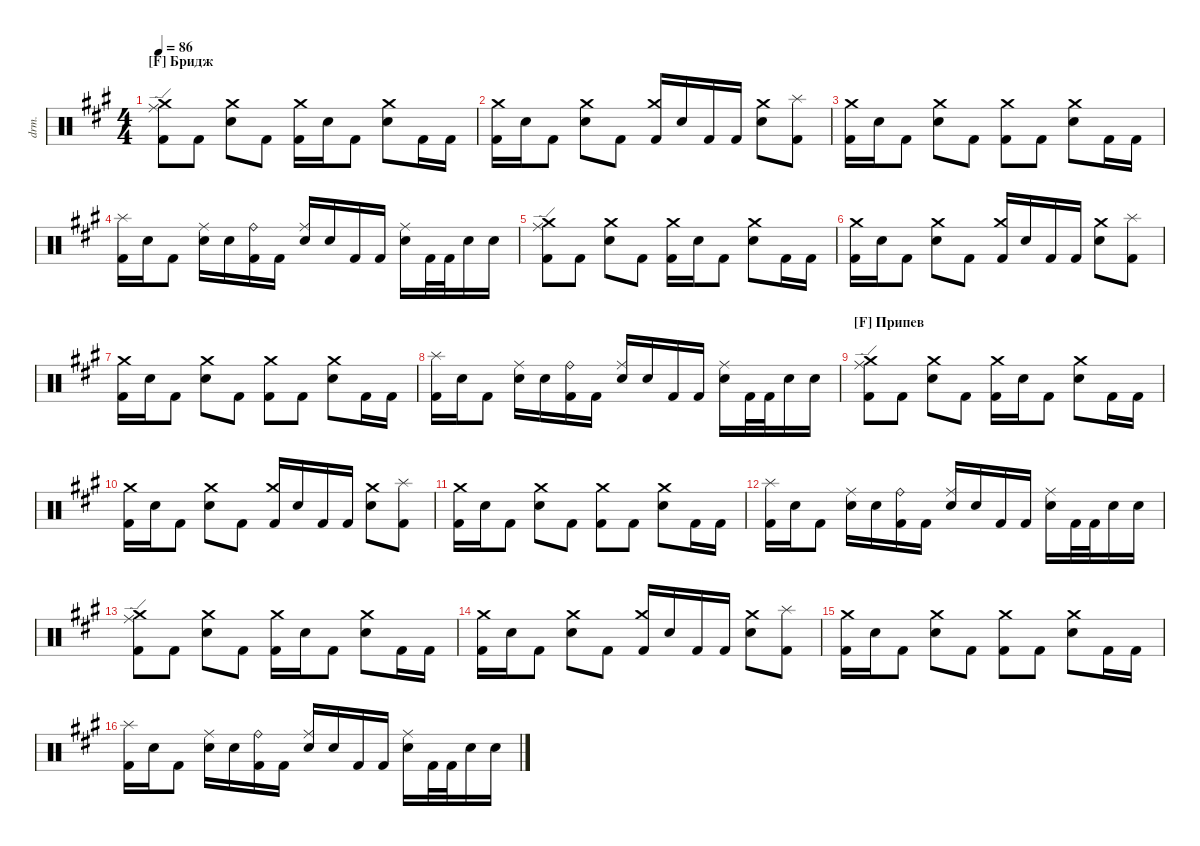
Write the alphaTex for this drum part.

\defaultSystemsLayout 4
\hideDynamics
\bracketExtendMode nobrackets
\track ("Drumkit" "drm.") {instrument percussion}
\staff {score}
\articulation defaults
\ts (4 4)
\section ("F" "Бридж")
\tempo 86
\clef neutral
\ks f#minor
("Kick (hit) 2"{acc forcenatural} "Crash medium (hit)"{acc forcenatural} "Ride (edge)"{acc forcenatural}).8{dy mf beam Down} "Kick (hit) 2"{acc forcenatural}.8{beam Down} ("Snare (hit) 2"{acc forcenatural} "Crash medium (hit)"{acc forcenatural}).8{beam Down} "Kick (hit) 2"{acc forcenatural}.8{beam Down} ("Kick (hit) 2"{acc forcenatural} "Crash medium (hit)"{acc forcenatural}).16{beam Down} "Snare (hit) 2"{acc forcenatural}.16{beam Down} "Kick (hit) 2"{acc forcenatural}.8{beam Down} ("Snare (hit) 2"{acc forcenatural} "Crash medium (hit)"{acc forcenatural}).8{beam Down} "Kick (hit) 2"{acc forcenatural}.16{beam Down} "Kick (hit) 2"{acc forcenatural}.16{beam Down} |
("Kick (hit) 2"{acc forcenatural} "Crash medium (hit)"{acc forcenatural}).16{beam Down} "Snare (hit) 2"{acc forcenatural}.16{beam Down} "Kick (hit) 2"{acc forcenatural}.8{beam Down} ("Snare (hit) 2"{acc forcenatural} "Crash medium (hit)"{acc forcenatural}).8{beam Down} "Kick (hit) 2"{acc forcenatural}.8{beam Down} ("Kick (hit) 2"{acc forcenatural} "Crash medium (hit)"{acc forcenatural}).16{beam Up} "Snare (hit) 2"{acc forcenatural}.16{beam Up} "Kick (hit) 2"{acc forcenatural}.16{beam Up} "Kick (hit) 2"{acc forcenatural}.16{beam Up} ("Snare (hit) 2"{acc forcenatural} "Crash medium (hit)"{acc forcenatural}).8{beam Down} ("Kick (hit) 2"{acc forcenatural} "Splash (hit)"{acc forcenatural}).8{beam Down} |
("Kick (hit) 2"{acc forcenatural} "Crash medium (hit)"{acc forcenatural}).16{beam Down} "Snare (hit) 2"{acc forcenatural}.16{beam Down} "Kick (hit) 2"{acc forcenatural}.8{beam Down} ("Snare (hit) 2"{acc forcenatural} "Crash medium (hit)"{acc forcenatural}).8{beam Down} "Kick (hit) 2"{acc forcenatural}.8{beam Down} ("Kick (hit) 2"{acc forcenatural} "Crash medium (hit)"{acc forcenatural}).8{beam Down} "Kick (hit) 2"{acc forcenatural}.8{beam Down} ("Snare (hit) 2"{acc forcenatural} "Crash medium (hit)"{acc forcenatural}).8{beam Down} "Kick (hit) 2"{acc forcenatural}.16{beam Down} "Kick (hit) 2"{acc forcenatural}.16{beam Down} |
("Kick (hit) 2"{acc forcenatural} "Splash (hit)"{acc forcenatural}).16{beam Down} "Snare (hit) 2"{acc forcenatural}.16{beam Down} "Kick (hit) 2"{acc forcenatural}.8{beam Down} ("Snare (hit) 2"{acc forcenatural} "Ride (middle)"{acc forcenatural}).16{beam Down} "Snare (hit) 2"{acc forcenatural}.16{beam Down} ("Kick (hit) 2"{acc forcenatural} "Ride (bell)"{acc forcenatural}).16{beam Down} "Kick (hit) 2"{acc forcenatural}.16{beam Down} ("Snare (hit) 2"{acc forcenatural} "Ride (middle)"{acc forcenatural}).16{beam Up} "Snare (hit) 2"{acc forcenatural}.16{beam Up} "Kick (hit) 2"{acc forcenatural}.16{beam Up} "Kick (hit) 2"{acc forcenatural}.16{beam Up} ("Snare (hit) 2"{acc forcenatural} "Ride (middle)"{acc forcenatural}).16{beam Down} "Kick (hit) 2"{acc forcenatural}.32{beam Down} "Kick (hit) 2"{acc forcenatural}.32{beam Down} "Snare (hit) 2"{acc forcenatural}.16{beam Down} "Snare (hit) 2"{acc forcenatural}.16{beam Down} |
("Kick (hit) 2"{acc forcenatural} "Crash medium (hit)"{acc forcenatural} "Ride (edge)"{acc forcenatural}).8{beam Down} "Kick (hit) 2"{acc forcenatural}.8{beam Down} ("Snare (hit) 2"{acc forcenatural} "Crash medium (hit)"{acc forcenatural}).8{beam Down} "Kick (hit) 2"{acc forcenatural}.8{beam Down} ("Kick (hit) 2"{acc forcenatural} "Crash medium (hit)"{acc forcenatural}).16{beam Down} "Snare (hit) 2"{acc forcenatural}.16{beam Down} "Kick (hit) 2"{acc forcenatural}.8{beam Down} ("Snare (hit) 2"{acc forcenatural} "Crash medium (hit)"{acc forcenatural}).8{beam Down} "Kick (hit) 2"{acc forcenatural}.16{beam Down} "Kick (hit) 2"{acc forcenatural}.16{beam Down} |
("Kick (hit) 2"{acc forcenatural} "Crash medium (hit)"{acc forcenatural}).16{beam Down} "Snare (hit) 2"{acc forcenatural}.16{beam Down} "Kick (hit) 2"{acc forcenatural}.8{beam Down} ("Snare (hit) 2"{acc forcenatural} "Crash medium (hit)"{acc forcenatural}).8{beam Down} "Kick (hit) 2"{acc forcenatural}.8{beam Down} ("Kick (hit) 2"{acc forcenatural} "Crash medium (hit)"{acc forcenatural}).16{beam Up} "Snare (hit) 2"{acc forcenatural}.16{beam Up} "Kick (hit) 2"{acc forcenatural}.16{beam Up} "Kick (hit) 2"{acc forcenatural}.16{beam Up} ("Snare (hit) 2"{acc forcenatural} "Crash medium (hit)"{acc forcenatural}).8{beam Down} ("Kick (hit) 2"{acc forcenatural} "Splash (hit)"{acc forcenatural}).8{beam Down} |
("Kick (hit) 2"{acc forcenatural} "Crash medium (hit)"{acc forcenatural}).16{beam Down} "Snare (hit) 2"{acc forcenatural}.16{beam Down} "Kick (hit) 2"{acc forcenatural}.8{beam Down} ("Snare (hit) 2"{acc forcenatural} "Crash medium (hit)"{acc forcenatural}).8{beam Down} "Kick (hit) 2"{acc forcenatural}.8{beam Down} ("Kick (hit) 2"{acc forcenatural} "Crash medium (hit)"{acc forcenatural}).8{beam Down} "Kick (hit) 2"{acc forcenatural}.8{beam Down} ("Snare (hit) 2"{acc forcenatural} "Crash medium (hit)"{acc forcenatural}).8{beam Down} "Kick (hit) 2"{acc forcenatural}.16{beam Down} "Kick (hit) 2"{acc forcenatural}.16{beam Down} |
("Kick (hit) 2"{acc forcenatural} "Splash (hit)"{acc forcenatural}).16{beam Down} "Snare (hit) 2"{acc forcenatural}.16{beam Down} "Kick (hit) 2"{acc forcenatural}.8{beam Down} ("Snare (hit) 2"{acc forcenatural} "Ride (middle)"{acc forcenatural}).16{beam Down} "Snare (hit) 2"{acc forcenatural}.16{beam Down} ("Kick (hit) 2"{acc forcenatural} "Ride (bell)"{acc forcenatural}).16{beam Down} "Kick (hit) 2"{acc forcenatural}.16{beam Down} ("Snare (hit) 2"{acc forcenatural} "Ride (middle)"{acc forcenatural}).16{beam Up} "Snare (hit) 2"{acc forcenatural}.16{beam Up} "Kick (hit) 2"{acc forcenatural}.16{beam Up} "Kick (hit) 2"{acc forcenatural}.16{beam Up} ("Snare (hit) 2"{acc forcenatural} "Ride (middle)"{acc forcenatural}).16{beam Down} "Kick (hit) 2"{acc forcenatural}.32{beam Down} "Kick (hit) 2"{acc forcenatural}.32{beam Down} "Snare (hit) 2"{acc forcenatural}.16{beam Down} "Snare (hit) 2"{acc forcenatural}.16{beam Down} |
\section ("F" "Припев")
("Kick (hit) 2"{acc forcenatural} "Crash medium (hit)"{acc forcenatural} "Ride (edge)"{acc forcenatural}).8{beam Down} "Kick (hit) 2"{acc forcenatural}.8{beam Down} ("Snare (hit) 2"{acc forcenatural} "Crash medium (hit)"{acc forcenatural}).8{beam Down} "Kick (hit) 2"{acc forcenatural}.8{beam Down} ("Kick (hit) 2"{acc forcenatural} "Crash medium (hit)"{acc forcenatural}).16{beam Down} "Snare (hit) 2"{acc forcenatural}.16{beam Down} "Kick (hit) 2"{acc forcenatural}.8{beam Down} ("Snare (hit) 2"{acc forcenatural} "Crash medium (hit)"{acc forcenatural}).8{beam Down} "Kick (hit) 2"{acc forcenatural}.16{beam Down} "Kick (hit) 2"{acc forcenatural}.16{beam Down} |
("Kick (hit) 2"{acc forcenatural} "Crash medium (hit)"{acc forcenatural}).16{beam Down} "Snare (hit) 2"{acc forcenatural}.16{beam Down} "Kick (hit) 2"{acc forcenatural}.8{beam Down} ("Snare (hit) 2"{acc forcenatural} "Crash medium (hit)"{acc forcenatural}).8{beam Down} "Kick (hit) 2"{acc forcenatural}.8{beam Down} ("Kick (hit) 2"{acc forcenatural} "Crash medium (hit)"{acc forcenatural}).16{beam Up} "Snare (hit) 2"{acc forcenatural}.16{beam Up} "Kick (hit) 2"{acc forcenatural}.16{beam Up} "Kick (hit) 2"{acc forcenatural}.16{beam Up} ("Snare (hit) 2"{acc forcenatural} "Crash medium (hit)"{acc forcenatural}).8{beam Down} ("Kick (hit) 2"{acc forcenatural} "Splash (hit)"{acc forcenatural}).8{beam Down} |
("Kick (hit) 2"{acc forcenatural} "Crash medium (hit)"{acc forcenatural}).16{beam Down} "Snare (hit) 2"{acc forcenatural}.16{beam Down} "Kick (hit) 2"{acc forcenatural}.8{beam Down} ("Snare (hit) 2"{acc forcenatural} "Crash medium (hit)"{acc forcenatural}).8{beam Down} "Kick (hit) 2"{acc forcenatural}.8{beam Down} ("Kick (hit) 2"{acc forcenatural} "Crash medium (hit)"{acc forcenatural}).8{beam Down} "Kick (hit) 2"{acc forcenatural}.8{beam Down} ("Snare (hit) 2"{acc forcenatural} "Crash medium (hit)"{acc forcenatural}).8{beam Down} "Kick (hit) 2"{acc forcenatural}.16{beam Down} "Kick (hit) 2"{acc forcenatural}.16{beam Down} |
("Kick (hit) 2"{acc forcenatural} "Splash (hit)"{acc forcenatural}).16{beam Down} "Snare (hit) 2"{acc forcenatural}.16{beam Down} "Kick (hit) 2"{acc forcenatural}.8{beam Down} ("Snare (hit) 2"{acc forcenatural} "Ride (middle)"{acc forcenatural}).16{beam Down} "Snare (hit) 2"{acc forcenatural}.16{beam Down} ("Kick (hit) 2"{acc forcenatural} "Ride (bell)"{acc forcenatural}).16{beam Down} "Kick (hit) 2"{acc forcenatural}.16{beam Down} ("Snare (hit) 2"{acc forcenatural} "Ride (middle)"{acc forcenatural}).16{beam Up} "Snare (hit) 2"{acc forcenatural}.16{beam Up} "Kick (hit) 2"{acc forcenatural}.16{beam Up} "Kick (hit) 2"{acc forcenatural}.16{beam Up} ("Snare (hit) 2"{acc forcenatural} "Ride (middle)"{acc forcenatural}).16{beam Down} "Kick (hit) 2"{acc forcenatural}.32{beam Down} "Kick (hit) 2"{acc forcenatural}.32{beam Down} "Snare (hit) 2"{acc forcenatural}.16{beam Down} "Snare (hit) 2"{acc forcenatural}.16{beam Down} |
("Kick (hit) 2"{acc forcenatural} "Crash medium (hit)"{acc forcenatural} "Ride (edge)"{acc forcenatural}).8{beam Down} "Kick (hit) 2"{acc forcenatural}.8{beam Down} ("Snare (hit) 2"{acc forcenatural} "Crash medium (hit)"{acc forcenatural}).8{beam Down} "Kick (hit) 2"{acc forcenatural}.8{beam Down} ("Kick (hit) 2"{acc forcenatural} "Crash medium (hit)"{acc forcenatural}).16{beam Down} "Snare (hit) 2"{acc forcenatural}.16{beam Down} "Kick (hit) 2"{acc forcenatural}.8{beam Down} ("Snare (hit) 2"{acc forcenatural} "Crash medium (hit)"{acc forcenatural}).8{beam Down} "Kick (hit) 2"{acc forcenatural}.16{beam Down} "Kick (hit) 2"{acc forcenatural}.16{beam Down} |
("Kick (hit) 2"{acc forcenatural} "Crash medium (hit)"{acc forcenatural}).16{beam Down} "Snare (hit) 2"{acc forcenatural}.16{beam Down} "Kick (hit) 2"{acc forcenatural}.8{beam Down} ("Snare (hit) 2"{acc forcenatural} "Crash medium (hit)"{acc forcenatural}).8{beam Down} "Kick (hit) 2"{acc forcenatural}.8{beam Down} ("Kick (hit) 2"{acc forcenatural} "Crash medium (hit)"{acc forcenatural}).16{beam Up} "Snare (hit) 2"{acc forcenatural}.16{beam Up} "Kick (hit) 2"{acc forcenatural}.16{beam Up} "Kick (hit) 2"{acc forcenatural}.16{beam Up} ("Snare (hit) 2"{acc forcenatural} "Crash medium (hit)"{acc forcenatural}).8{beam Down} ("Kick (hit) 2"{acc forcenatural} "Splash (hit)"{acc forcenatural}).8{beam Down} |
("Kick (hit) 2"{acc forcenatural} "Crash medium (hit)"{acc forcenatural}).16{beam Down} "Snare (hit) 2"{acc forcenatural}.16{beam Down} "Kick (hit) 2"{acc forcenatural}.8{beam Down} ("Snare (hit) 2"{acc forcenatural} "Crash medium (hit)"{acc forcenatural}).8{beam Down} "Kick (hit) 2"{acc forcenatural}.8{beam Down} ("Kick (hit) 2"{acc forcenatural} "Crash medium (hit)"{acc forcenatural}).8{beam Down} "Kick (hit) 2"{acc forcenatural}.8{beam Down} ("Snare (hit) 2"{acc forcenatural} "Crash medium (hit)"{acc forcenatural}).8{beam Down} "Kick (hit) 2"{acc forcenatural}.16{beam Down} "Kick (hit) 2"{acc forcenatural}.16{beam Down} |
("Kick (hit) 2"{acc forcenatural} "Splash (hit)"{acc forcenatural}).16{beam Down} "Snare (hit) 2"{acc forcenatural}.16{beam Down} "Kick (hit) 2"{acc forcenatural}.8{beam Down} ("Snare (hit) 2"{acc forcenatural} "Ride (middle)"{acc forcenatural}).16{beam Down} "Snare (hit) 2"{acc forcenatural}.16{beam Down} ("Kick (hit) 2"{acc forcenatural} "Ride (bell)"{acc forcenatural}).16{beam Down} "Kick (hit) 2"{acc forcenatural}.16{beam Down} ("Snare (hit) 2"{acc forcenatural} "Ride (middle)"{acc forcenatural}).16{beam Up} "Snare (hit) 2"{acc forcenatural}.16{beam Up} "Kick (hit) 2"{acc forcenatural}.16{beam Up} "Kick (hit) 2"{acc forcenatural}.16{beam Up} ("Snare (hit) 2"{acc forcenatural} "Ride (middle)"{acc forcenatural}).16{beam Down} "Kick (hit) 2"{acc forcenatural}.32{beam Down} "Kick (hit) 2"{acc forcenatural}.32{beam Down} "Snare (hit) 2"{acc forcenatural}.16{beam Down} "Snare (hit) 2"{acc forcenatural}.16{beam Down}
